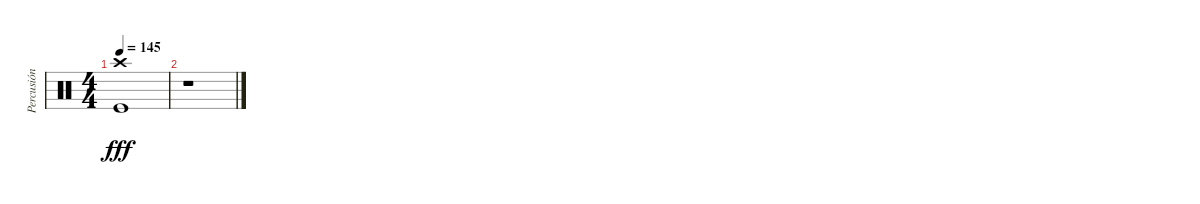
\track ("Percusión" "Percusión") {instrument percussion}
\staff {score}
\articulation defaults
\ts (4 4)
\tempo 145
\clef neutral
\ks c
("Crash high (hit)" "Kick (hit)").1{dy fff} |
r.1
